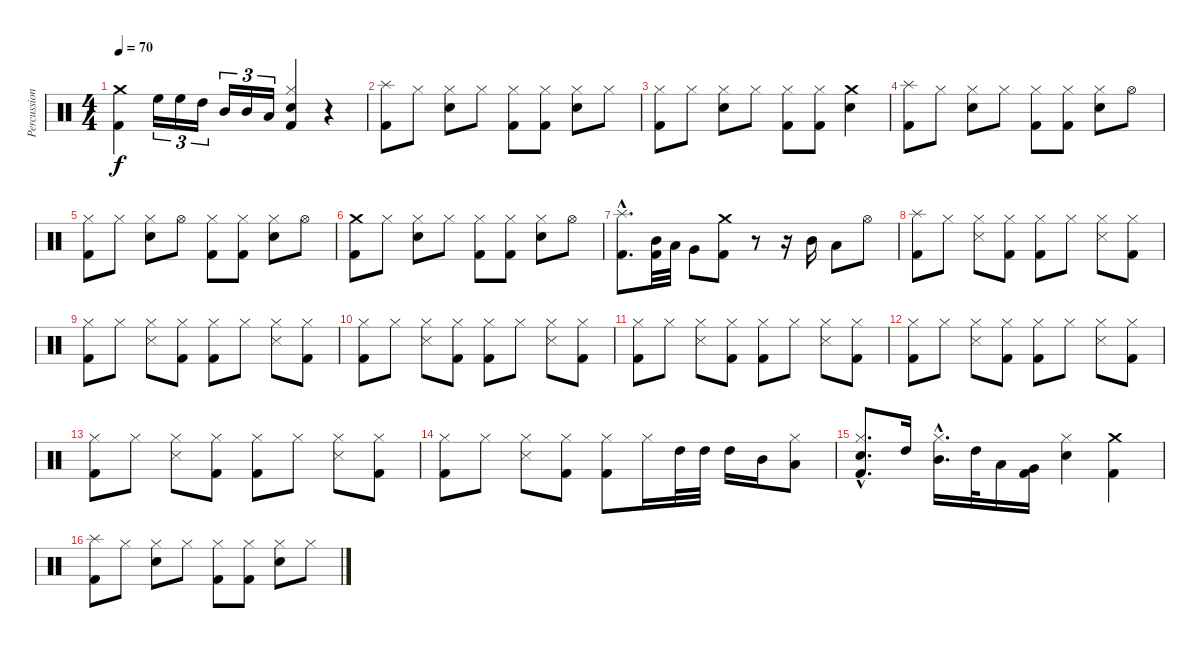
\track ("Percussion" "Percussion") {instrument percussion}
\staff {score}
\articulation defaults
\ts (4 4)
\tempo 70
\clef neutral
\ks c
("Crash medium (hit)" "Kick (hit) 2").4{dy f} "High Floor Tom (hit)".16{tu (3 2)} "High Floor Tom (hit)".16{tu (3 2)} "High Tom (hit)".16{tu (3 2)} "Mid Tom (hit)".16{tu (3 2)} "Mid Tom (hit)".16{tu (3 2)} "Low Tom (hit)".16{tu (3 2)} ("Hi-Hat (closed)" "Snare (hit) 2" "Kick (hit) 2").4 r.4 |
("Splash (hit)" "Kick (hit) 2").8 "Hi-Hat (closed)".8 ("Hi-Hat (closed)" "Snare (hit) 2").8 "Hi-Hat (closed)".8 ("Hi-Hat (closed)" "Kick (hit) 2").8 ("Hi-Hat (closed)" "Kick (hit) 2").8 ("Hi-Hat (closed)" "Snare (hit) 2").8 "Hi-Hat (closed)".8 |
("Hi-Hat (closed)" "Kick (hit) 2").8 "Hi-Hat (closed)".8 ("Hi-Hat (closed)" "Snare (hit) 2").8 "Hi-Hat (closed)".8 ("Hi-Hat (closed)" "Kick (hit) 2").8 ("Hi-Hat (closed)" "Kick (hit) 2").8 ("Crash medium (hit)" "Snare (hit) 2").4 |
("Splash (hit)" "Kick (hit) 2").8 "Hi-Hat (closed)".8 ("Hi-Hat (closed)" "Snare (hit) 2").8 "Hi-Hat (closed)".8 ("Hi-Hat (closed)" "Kick (hit) 2").8 ("Hi-Hat (closed)" "Kick (hit) 2").8 ("Hi-Hat (closed)" "Snare (hit) 2").8 "Hi-Hat (open)".8 |
("Hi-Hat (closed)" "Kick (hit) 2").8 "Hi-Hat (closed)".8 ("Hi-Hat (closed)" "Snare (hit) 2").8 "Hi-Hat (open)".8 ("Hi-Hat (closed)" "Kick (hit) 2").8 ("Hi-Hat (closed)" "Kick (hit) 2").8 ("Hi-Hat (closed)" "Snare (hit) 2").8 "Hi-Hat (open)".8 |
("Crash medium (hit)" "Kick (hit) 2").8 "Hi-Hat (closed)".8 ("Hi-Hat (closed)" "Snare (hit) 2").8 "Hi-Hat (closed)".8 ("Hi-Hat (closed)" "Kick (hit) 2").8 ("Hi-Hat (closed)" "Kick (hit) 2").8 ("Hi-Hat (closed)" "Snare (hit) 2").8 "Hi-Hat (open)".8 |
("Splash (hit)"{hac} "Kick (hit) 2"{hac}).8{d} ("Mid Tom (hit)" "Kick (hit) 2").32 "Low Tom (hit)".32 "Very Low Tom (hit)".8 ("Crash medium (hit)" "Kick (hit) 2").8 r.8 r.16 "Mid Tom (hit)".16 "Low Tom (hit)".8 "Hi-Hat (open)".8 |
("Splash (hit)" "Kick (hit) 2").8 "Hi-Hat (closed)".8 ("Hi-Hat (closed)" "Snare (side stick) 3").8 ("Hi-Hat (closed)" "Kick (hit) 2").8 ("Hi-Hat (closed)" "Kick (hit) 2").8 "Hi-Hat (closed)".8 ("Hi-Hat (closed)" "Snare (side stick) 3").8 ("Hi-Hat (closed)" "Kick (hit) 2").8 |
("Hi-Hat (closed)" "Kick (hit) 2").8 "Hi-Hat (closed)".8 ("Hi-Hat (closed)" "Snare (side stick) 3").8 ("Hi-Hat (closed)" "Kick (hit) 2").8 ("Hi-Hat (closed)" "Kick (hit) 2").8 "Hi-Hat (closed)".8 ("Hi-Hat (closed)" "Snare (side stick) 3").8 ("Hi-Hat (closed)" "Kick (hit) 2").8 |
("Hi-Hat (closed)" "Kick (hit) 2").8 "Hi-Hat (closed)".8 ("Hi-Hat (closed)" "Snare (side stick) 3").8 ("Hi-Hat (closed)" "Kick (hit) 2").8 ("Hi-Hat (closed)" "Kick (hit) 2").8 "Hi-Hat (closed)".8 ("Hi-Hat (closed)" "Snare (side stick) 3").8 ("Hi-Hat (closed)" "Kick (hit) 2").8 |
("Hi-Hat (closed)" "Kick (hit) 2").8 "Hi-Hat (closed)".8 ("Hi-Hat (closed)" "Snare (side stick) 3").8 ("Hi-Hat (closed)" "Kick (hit) 2").8 ("Hi-Hat (closed)" "Kick (hit) 2").8 "Hi-Hat (closed)".8 ("Hi-Hat (closed)" "Snare (side stick) 3").8 ("Hi-Hat (closed)" "Kick (hit) 2").8 |
("Hi-Hat (closed)" "Kick (hit) 2").8 "Hi-Hat (closed)".8 ("Hi-Hat (closed)" "Snare (side stick) 3").8 ("Hi-Hat (closed)" "Kick (hit) 2").8 ("Hi-Hat (closed)" "Kick (hit) 2").8 "Hi-Hat (closed)".8 ("Hi-Hat (closed)" "Snare (side stick) 3").8 ("Hi-Hat (closed)" "Kick (hit) 2").8 |
("Hi-Hat (closed)" "Kick (hit) 2").8 "Hi-Hat (closed)".8 ("Hi-Hat (closed)" "Snare (side stick) 3").8 ("Hi-Hat (closed)" "Kick (hit) 2").8 ("Hi-Hat (closed)" "Kick (hit) 2").8 "Hi-Hat (closed)".8 ("Hi-Hat (closed)" "Snare (side stick) 3").8 ("Hi-Hat (closed)" "Kick (hit) 2").8 |
("Hi-Hat (closed)" "Kick (hit) 2").8 "Hi-Hat (closed)".8 ("Hi-Hat (closed)" "Snare (side stick) 3").8 ("Hi-Hat (closed)" "Kick (hit) 2").8 ("Hi-Hat (closed)" "Kick (hit) 2").8 "Hi-Hat (closed)".16 "High Tom (hit)".32 "High Tom (hit)".32 "High Tom (hit)".16 "Mid Tom (hit)".16 ("Hi-Hat (closed)" "Low Tom (hit)").8 |
("Hi-Hat (closed)"{hac} "Snare (hit) 2"{hac} "Kick (hit) 2"{hac}).8{d} "High Tom (hit)".16 ("Hi-Hat (closed)"{hac} "Mid Tom (hit)"{hac}).16{d} "High Tom (hit)".32 "Low Tom (hit)".16 ("Very Low Tom (hit)" "Kick (hit) 2").16 ("Hi-Hat (closed)" "Snare (hit) 2").4 ("Crash medium (hit)" "Kick (hit) 2").4 |
("Splash (hit)" "Kick (hit) 2").8 "Hi-Hat (closed)".8 ("Hi-Hat (closed)" "Snare (hit) 2").8 "Hi-Hat (closed)".8 ("Hi-Hat (closed)" "Kick (hit) 2").8 ("Hi-Hat (closed)" "Kick (hit) 2").8 ("Hi-Hat (closed)" "Snare (hit) 2").8 "Hi-Hat (closed)".8
